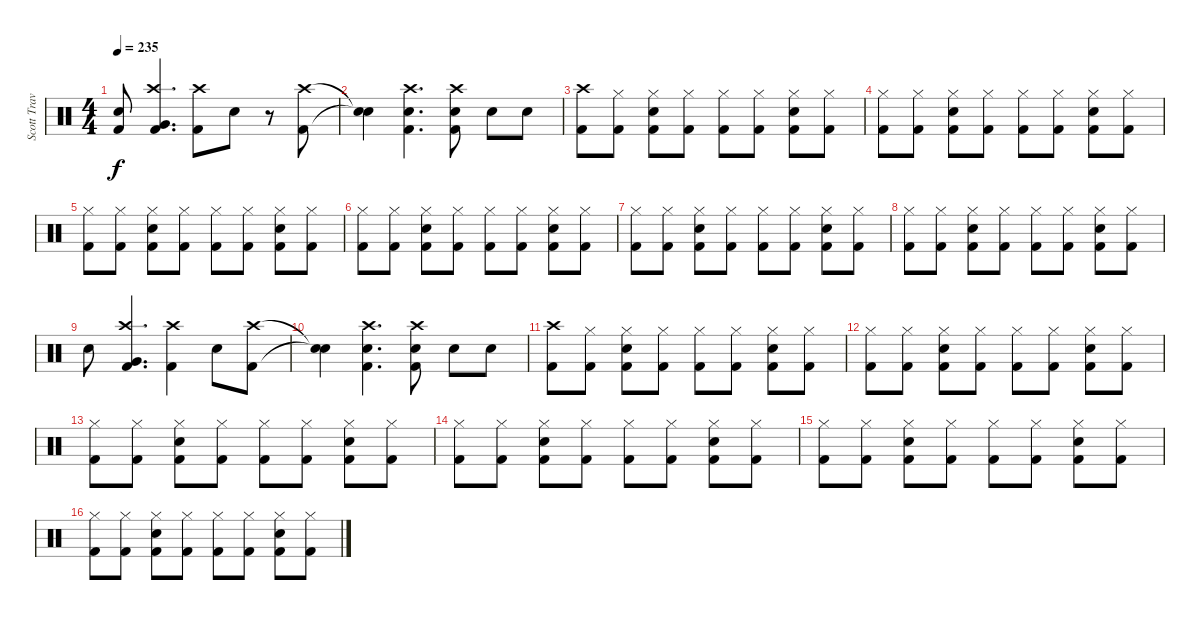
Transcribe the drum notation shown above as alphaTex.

\track ("Scott Travis" "Scott Trav") {instrument percussion}
\staff {score}
\articulation defaults
\ts (4 4)
\tempo 235
\clef neutral
\ks c
("Snare (hit) 2" "Kick (hit) 2").8{dy f} ("Kick (hit) 2" "Crash high (hit)" "Very Low Tom (hit)").4{d} ("Kick (hit) 2" "Crash high (hit)").8 "Snare (hit) 2".8 r.8 ("Kick (hit) 2" "Crash high (hit)").8 |
("Snare (hit)"{t} "Snare (hit)"{t}).4 ("Kick (hit) 2" "Crash high (hit)" "Snare (hit) 2").4{d} ("Kick (hit) 2" "Crash high (hit)" "Snare (hit) 2").8 "Snare (hit) 2".8 "Snare (hit) 2".8 |
("Kick (hit) 2" "Crash high (hit)").8 ("Kick (hit) 2" "Hi-Hat (closed)").8 ("Kick (hit) 2" "Snare (hit) 2" "Hi-Hat (closed)").8 ("Kick (hit) 2" "Hi-Hat (closed)").8 ("Kick (hit) 2" "Hi-Hat (closed)").8 ("Kick (hit) 2" "Hi-Hat (closed)").8 ("Kick (hit) 2" "Hi-Hat (closed)" "Snare (hit) 2").8 ("Kick (hit) 2" "Hi-Hat (closed)").8 |
("Kick (hit) 2" "Hi-Hat (closed)").8 ("Kick (hit) 2" "Hi-Hat (closed)").8 ("Kick (hit) 2" "Snare (hit) 2" "Hi-Hat (closed)").8 ("Kick (hit) 2" "Hi-Hat (closed)").8 ("Kick (hit) 2" "Hi-Hat (closed)").8 ("Kick (hit) 2" "Hi-Hat (closed)").8 ("Kick (hit) 2" "Hi-Hat (closed)" "Snare (hit) 2").8 ("Kick (hit) 2" "Hi-Hat (closed)").8 |
("Kick (hit) 2" "Hi-Hat (closed)").8 ("Kick (hit) 2" "Hi-Hat (closed)").8 ("Kick (hit) 2" "Snare (hit) 2" "Hi-Hat (closed)").8 ("Kick (hit) 2" "Hi-Hat (closed)").8 ("Kick (hit) 2" "Hi-Hat (closed)").8 ("Kick (hit) 2" "Hi-Hat (closed)").8 ("Kick (hit) 2" "Hi-Hat (closed)" "Snare (hit) 2").8 ("Kick (hit) 2" "Hi-Hat (closed)").8 |
("Kick (hit) 2" "Hi-Hat (closed)").8 ("Kick (hit) 2" "Hi-Hat (closed)").8 ("Kick (hit) 2" "Snare (hit) 2" "Hi-Hat (closed)").8 ("Kick (hit) 2" "Hi-Hat (closed)").8 ("Kick (hit) 2" "Hi-Hat (closed)").8 ("Kick (hit) 2" "Hi-Hat (closed)").8 ("Kick (hit) 2" "Hi-Hat (closed)" "Snare (hit) 2").8 ("Kick (hit) 2" "Hi-Hat (closed)").8 |
("Kick (hit) 2" "Hi-Hat (closed)").8 ("Kick (hit) 2" "Hi-Hat (closed)").8 ("Kick (hit) 2" "Snare (hit) 2" "Hi-Hat (closed)").8 ("Kick (hit) 2" "Hi-Hat (closed)").8 ("Kick (hit) 2" "Hi-Hat (closed)").8 ("Kick (hit) 2" "Hi-Hat (closed)").8 ("Kick (hit) 2" "Hi-Hat (closed)" "Snare (hit) 2").8 ("Kick (hit) 2" "Hi-Hat (closed)").8 |
("Kick (hit) 2" "Hi-Hat (closed)").8 ("Kick (hit) 2" "Hi-Hat (closed)").8 ("Kick (hit) 2" "Snare (hit) 2" "Hi-Hat (closed)").8 ("Kick (hit) 2" "Hi-Hat (closed)").8 ("Kick (hit) 2" "Hi-Hat (closed)").8 ("Kick (hit) 2" "Hi-Hat (closed)").8 ("Kick (hit) 2" "Hi-Hat (closed)" "Snare (hit) 2").8 ("Kick (hit) 2" "Hi-Hat (closed)").8 |
"Snare (hit) 2".8 ("Kick (hit) 2" "Crash high (hit)" "Very Low Tom (hit)").4{d} ("Kick (hit) 2" "Crash high (hit)").4 "Snare (hit) 2".8 ("Kick (hit) 2" "Crash high (hit)").8 |
("Snare (hit)"{t} "Snare (hit)"{t}).4 ("Kick (hit) 2" "Crash high (hit)" "Snare (hit) 2").4{d} ("Kick (hit) 2" "Crash high (hit)" "Snare (hit) 2").8 "Snare (hit) 2".8 "Snare (hit) 2".8 |
("Kick (hit) 2" "Crash high (hit)").8 ("Kick (hit) 2" "Hi-Hat (closed)").8 ("Kick (hit) 2" "Snare (hit) 2" "Hi-Hat (closed)").8 ("Kick (hit) 2" "Hi-Hat (closed)").8 ("Kick (hit) 2" "Hi-Hat (closed)").8 ("Kick (hit) 2" "Hi-Hat (closed)").8 ("Kick (hit) 2" "Hi-Hat (closed)" "Snare (hit) 2").8 ("Kick (hit) 2" "Hi-Hat (closed)").8 |
("Kick (hit) 2" "Hi-Hat (closed)").8 ("Kick (hit) 2" "Hi-Hat (closed)").8 ("Kick (hit) 2" "Snare (hit) 2" "Hi-Hat (closed)").8 ("Kick (hit) 2" "Hi-Hat (closed)").8 ("Kick (hit) 2" "Hi-Hat (closed)").8 ("Kick (hit) 2" "Hi-Hat (closed)").8 ("Kick (hit) 2" "Hi-Hat (closed)" "Snare (hit) 2").8 ("Kick (hit) 2" "Hi-Hat (closed)").8 |
("Kick (hit) 2" "Hi-Hat (closed)").8 ("Kick (hit) 2" "Hi-Hat (closed)").8 ("Kick (hit) 2" "Snare (hit) 2" "Hi-Hat (closed)").8 ("Kick (hit) 2" "Hi-Hat (closed)").8 ("Kick (hit) 2" "Hi-Hat (closed)").8 ("Kick (hit) 2" "Hi-Hat (closed)").8 ("Kick (hit) 2" "Hi-Hat (closed)" "Snare (hit) 2").8 ("Kick (hit) 2" "Hi-Hat (closed)").8 |
("Kick (hit) 2" "Hi-Hat (closed)").8 ("Kick (hit) 2" "Hi-Hat (closed)").8 ("Kick (hit) 2" "Snare (hit) 2" "Hi-Hat (closed)").8 ("Kick (hit) 2" "Hi-Hat (closed)").8 ("Kick (hit) 2" "Hi-Hat (closed)").8 ("Kick (hit) 2" "Hi-Hat (closed)").8 ("Kick (hit) 2" "Hi-Hat (closed)" "Snare (hit) 2").8 ("Kick (hit) 2" "Hi-Hat (closed)").8 |
("Kick (hit) 2" "Hi-Hat (closed)").8 ("Kick (hit) 2" "Hi-Hat (closed)").8 ("Kick (hit) 2" "Snare (hit) 2" "Hi-Hat (closed)").8 ("Kick (hit) 2" "Hi-Hat (closed)").8 ("Kick (hit) 2" "Hi-Hat (closed)").8 ("Kick (hit) 2" "Hi-Hat (closed)").8 ("Kick (hit) 2" "Hi-Hat (closed)" "Snare (hit) 2").8 ("Kick (hit) 2" "Hi-Hat (closed)").8 |
("Kick (hit) 2" "Hi-Hat (closed)").8 ("Kick (hit) 2" "Hi-Hat (closed)").8 ("Kick (hit) 2" "Snare (hit) 2" "Hi-Hat (closed)").8 ("Kick (hit) 2" "Hi-Hat (closed)").8 ("Kick (hit) 2" "Hi-Hat (closed)").8 ("Kick (hit) 2" "Hi-Hat (closed)").8 ("Kick (hit) 2" "Hi-Hat (closed)" "Snare (hit) 2").8 ("Kick (hit) 2" "Hi-Hat (closed)").8
